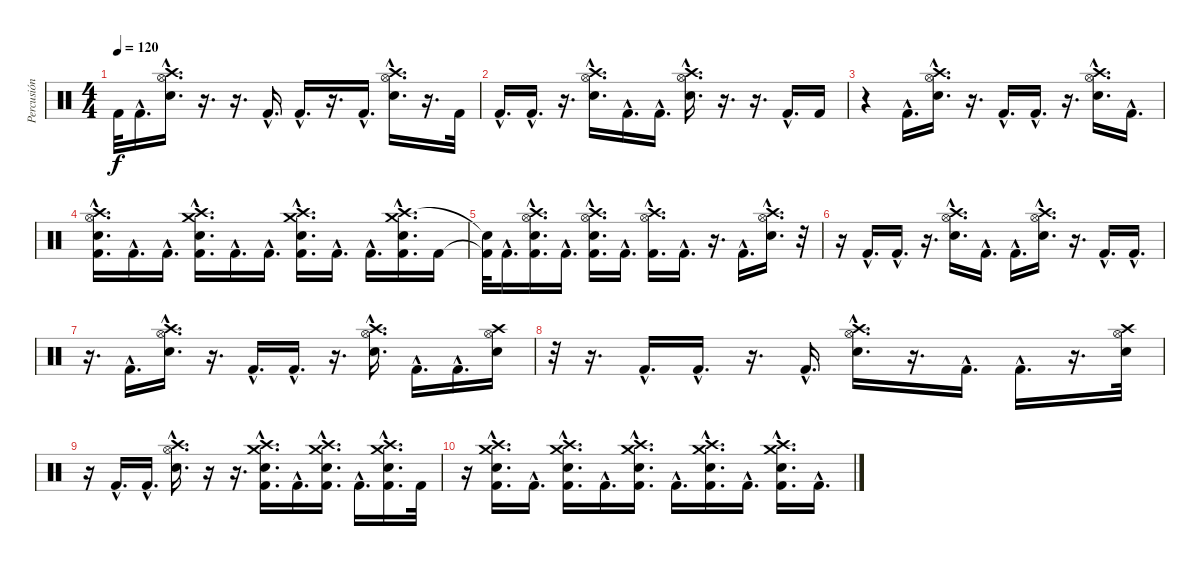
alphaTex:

\track ("Percusión" "Percusión") {instrument percussion}
\staff {score}
\articulation defaults
\ts (4 4)
\tempo 120
\clef neutral
\ks c "Kick (hit) 2"{t}.32{dy f} "Kick (hit) 2"{hac}.16{d}
("Electric Snare (hit)"{hac} "Hi-Hat (open)"{hac} "Crash high (hit)"{hac}).16{d} r.16{d} r.16{d} "Kick (hit) 2"{hac}.16{d} "Kick (hit) 2"{hac}.16{d} r.16{d} "Kick (hit) 2"{hac}.16{d} ("Electric Snare (hit)"{hac} "Crash high (hit)"{hac} "Hi-Hat (open)"{hac}).16{d} r.16{d} "Kick (hit) 2".32 |
"Kick (hit) 2"{hac}.16{d} "Kick (hit) 2"{hac}.16{d} r.16{d} ("Electric Snare (hit)"{hac} "Hi-Hat (open)"{hac} "Crash high (hit)"{hac}).16{d} "Kick (hit) 2"{hac}.16{d} "Kick (hit) 2"{hac}.16{d} ("Electric Snare (hit)"{hac} "Hi-Hat (open)"{hac} "Crash high (hit)"{hac}).16{d} r.16{d} r.16{d} "Kick (hit) 2"{hac}.16{d} "Kick (hit) 2".16 |
r.4 "Kick (hit) 2"{hac}.16{d} ("Electric Snare (hit)"{hac} "Crash high (hit)"{hac} "Hi-Hat (open)"{hac}).16{d} r.16{d} "Kick (hit) 2"{hac}.16{d} "Kick (hit) 2"{hac}.16{d} r.16{d} ("Electric Snare (hit)"{hac} "Crash high (hit)"{hac} "Hi-Hat (open)"{hac}).16{d} "Kick (hit) 2"{hac}.16{d} |
("Kick (hit) 2"{hac} "Crash high (hit)"{hac} "Hi-Hat (open)"{hac} "Electric Snare (hit)"{hac}).16{d} "Kick (hit) 2"{hac}.16{d} "Kick (hit) 2"{hac}.16{d} ("Kick (hit) 2"{hac} "Crash high (hit)"{hac} "Crash medium (hit)"{hac} "Electric Snare (hit)"{hac}).16{d} "Kick (hit) 2"{hac}.16{d} "Kick (hit) 2"{hac}.16{d} ("Kick (hit) 2"{hac} "Crash high (hit)"{hac} "Crash medium (hit)"{hac} "Electric Snare (hit)"{hac}).16{d} "Kick (hit) 2"{hac}.16{d} "Kick (hit) 2"{hac}.16{d} ("Kick (hit) 2"{hac} "Crash high (hit)"{hac} "Electric Snare (hit)"{hac} "Crash medium (hit)"{hac}).16{d} "Kick (hit) 2".16 |
("Kick (hit) 2"{t} "Snare (hit)"{t}).32 "Kick (hit) 2"{hac}.16{d} ("Kick (hit) 2"{hac} "Crash high (hit)"{hac} "Hi-Hat (open)"{hac} "Electric Snare (hit)"{hac}).16{d} "Kick (hit) 2"{hac}.16{d} ("Kick (hit) 2"{hac} "Crash high (hit)"{hac} "Hi-Hat (open)"{hac} "Electric Snare (hit)"{hac}).16{d} "Kick (hit) 2"{hac}.16{d} ("Kick (hit) 2"{hac} "Crash high (hit)"{hac} "Hi-Hat (open)"{hac}).16{d} "Kick (hit) 2"{hac}.16{d} r.16{d} "Kick (hit) 2"{hac}.16{d} ("Electric Snare (hit)"{hac} "Crash high (hit)"{hac} "Hi-Hat (open)"{hac}).16{d} r.32 |
r.16 "Kick (hit) 2"{hac}.16{d} "Kick (hit) 2"{hac}.16{d} r.16{d} ("Crash high (hit)"{hac} "Electric Snare (hit)"{hac} "Hi-Hat (open)"{hac}).16{d} "Kick (hit) 2"{hac}.16{d} "Kick (hit) 2"{hac}.16{d} ("Electric Snare (hit)"{hac} "Crash high (hit)"{hac} "Hi-Hat (open)"{hac}).16{d} r.16{d} "Kick (hit) 2"{hac}.16{d} "Kick (hit) 2"{hac}.16{d} |
r.16{d} "Kick (hit) 2"{hac}.16{d} ("Electric Snare (hit)"{hac} "Hi-Hat (open)"{hac} "Crash high (hit)"{hac}).16{d} r.16{d} "Kick (hit) 2"{hac}.16{d} "Kick (hit) 2"{hac}.16{d} r.16{d} ("Electric Snare (hit)"{hac} "Hi-Hat (open)"{hac} "Crash high (hit)"{hac}).16{d} "Kick (hit) 2"{hac}.16{d} "Kick (hit) 2"{hac}.16{d} ("Electric Snare (hit)" "Hi-Hat (open)" "Crash high (hit)").16 |
r.32 r.16{d} "Kick (hit) 2"{hac}.16{d} "Kick (hit) 2"{hac}.16{d} r.16{d} "Kick (hit) 2"{hac}.16{d} ("Electric Snare (hit)"{hac} "Crash high (hit)"{hac} "Hi-Hat (open)"{hac}).16{d} r.16{d} "Kick (hit) 2"{hac}.16{d} "Kick (hit) 2"{hac}.16{d} r.16{d} ("Electric Snare (hit)" "Hi-Hat (open)" "Crash high (hit)").32 |
r.16 "Kick (hit) 2"{hac}.16{d} "Kick (hit) 2"{hac}.16{d} ("Electric Snare (hit)"{hac} "Crash high (hit)"{hac} "Hi-Hat (open)"{hac}).16{d} r.16 r.16{d} ("Kick (hit) 2"{hac} "Electric Snare (hit)"{hac} "Crash medium (hit)"{hac} "Crash high (hit)"{hac}).16{d} "Kick (hit) 2"{hac}.16{d} ("Kick (hit) 2"{hac} "Electric Snare (hit)"{hac} "Crash medium (hit)"{hac} "Crash high (hit)"{hac}).16{d} "Kick (hit) 2"{hac}.16{d} ("Kick (hit) 2"{hac} "Electric Snare (hit)"{hac} "Crash medium (hit)"{hac} "Crash high (hit)"{hac}).16{d} "Kick (hit) 2".32 |
r.16 ("Kick (hit) 2"{hac} "Electric Snare (hit)"{hac} "Crash medium (hit)"{hac} "Crash high (hit)"{hac}).16{d} "Kick (hit) 2"{hac}.16{d} ("Kick (hit) 2"{hac} "Electric Snare (hit)"{hac} "Crash medium (hit)"{hac} "Crash high (hit)"{hac}).16{d} "Kick (hit) 2"{hac}.16{d} ("Kick (hit) 2"{hac} "Electric Snare (hit)"{hac} "Crash medium (hit)"{hac} "Crash high (hit)"{hac}).16{d} "Kick (hit) 2"{hac}.16{d} ("Kick (hit) 2"{hac} "Electric Snare (hit)"{hac} "Crash medium (hit)"{hac} "Crash high (hit)"{hac}).16{d} "Kick (hit) 2"{hac}.16{d} ("Kick (hit) 2"{hac} "Electric Snare (hit)"{hac} "Crash medium (hit)"{hac} "Crash high (hit)"{hac}).16{d} "Kick (hit) 2"{hac}.16{d}
